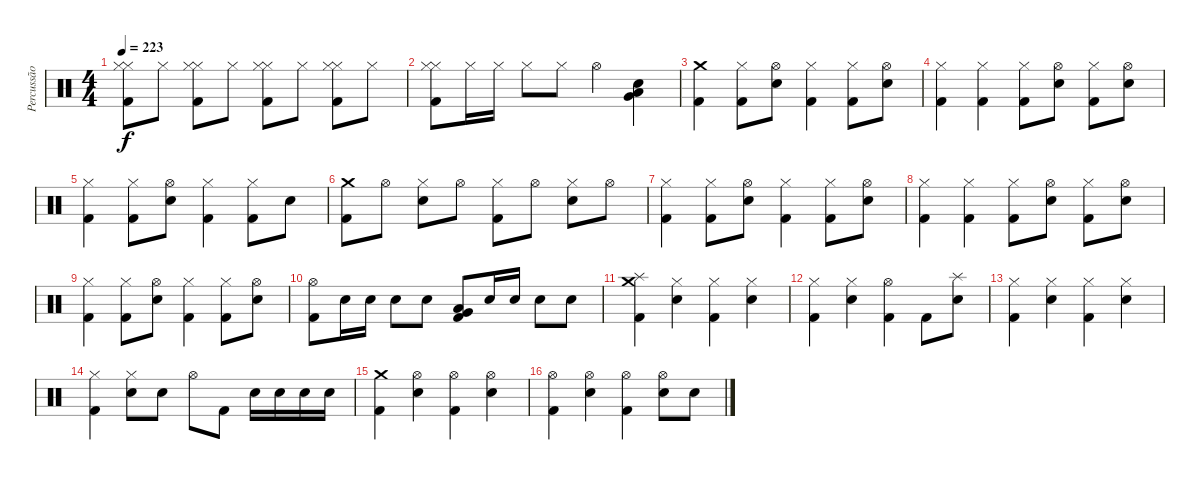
\track ("Percussão" "Percussão") {instrument percussion}
\staff {score}
\articulation defaults
\ts (4 4)
\tempo 223
\clef neutral
\ks c
("Hi-Hat (closed)" "Kick (hit) 2" "Hi-Hat (closed)").8{dy f} "Hi-Hat (closed)".8 ("Hi-Hat (closed)" "Kick (hit) 2" "Hi-Hat (closed)").8 "Hi-Hat (closed)".8 ("Hi-Hat (closed)" "Kick (hit) 2" "Hi-Hat (closed)").8 "Hi-Hat (closed)".8 ("Hi-Hat (closed)" "Kick (hit) 2" "Hi-Hat (closed)").8 "Hi-Hat (closed)".8 |
("Hi-Hat (closed)" "Kick (hit) 2" "Hi-Hat (closed)").8 "Hi-Hat (closed)".16 "Hi-Hat (closed)".16 "Hi-Hat (closed)".8 "Hi-Hat (closed)".8 "Hi-Hat (open)".4 ("Low Tom (hit)" "Very Low Tom (hit)" "Snare (hit) 2").4 |
("Crash medium (hit)" "Kick (hit) 2").4 ("Hi-Hat (closed)" "Kick (hit) 2").8 ("Hi-Hat (open)" "Snare (hit) 2").8 ("Hi-Hat (closed)" "Kick (hit) 2").4 ("Hi-Hat (closed)" "Kick (hit) 2").8 ("Hi-Hat (open)" "Snare (hit) 2").8 |
("Hi-Hat (closed)" "Kick (hit) 2").4 ("Hi-Hat (closed)" "Kick (hit) 2").4 ("Hi-Hat (closed)" "Kick (hit) 2").8 ("Hi-Hat (open)" "Snare (hit) 2").8 ("Hi-Hat (closed)" "Kick (hit) 2").8 ("Hi-Hat (open)" "Snare (hit) 2").8 |
("Hi-Hat (closed)" "Kick (hit) 2").4 ("Hi-Hat (closed)" "Kick (hit) 2").8 ("Hi-Hat (open)" "Snare (hit) 2").8 ("Hi-Hat (closed)" "Kick (hit) 2").4 ("Hi-Hat (closed)" "Kick (hit) 2").8 "Snare (hit) 2".8 |
("Crash medium (hit)" "Kick (hit) 2").8 "Hi-Hat (open)".8 ("Hi-Hat (closed)" "Snare (hit) 2").8 "Hi-Hat (open)".8 ("Hi-Hat (closed)" "Kick (hit) 2").8 "Hi-Hat (open)".8 ("Hi-Hat (closed)" "Snare (hit) 2").8 "Hi-Hat (open)".8 |
("Hi-Hat (closed)" "Kick (hit) 2").4 ("Hi-Hat (closed)" "Kick (hit) 2").8 ("Hi-Hat (open)" "Snare (hit) 2").8 ("Hi-Hat (closed)" "Kick (hit) 2").4 ("Hi-Hat (closed)" "Kick (hit) 2").8 ("Hi-Hat (open)" "Snare (hit) 2").8 |
("Hi-Hat (closed)" "Kick (hit) 2").4 ("Hi-Hat (closed)" "Kick (hit) 2").4 ("Hi-Hat (closed)" "Kick (hit) 2").8 ("Hi-Hat (open)" "Snare (hit) 2").8 ("Hi-Hat (closed)" "Kick (hit) 2").8 ("Hi-Hat (open)" "Snare (hit) 2").8 |
("Hi-Hat (closed)" "Kick (hit) 2").4 ("Hi-Hat (closed)" "Kick (hit) 2").8 ("Hi-Hat (open)" "Snare (hit) 2").8 ("Hi-Hat (closed)" "Kick (hit) 2").4 ("Hi-Hat (closed)" "Kick (hit) 2").8 ("Hi-Hat (open)" "Snare (hit) 2").8 |
("Hi-Hat (open)" "Kick (hit) 2").8 "Snare (hit) 2".16 "Snare (hit) 2".16 "Snare (hit) 2".8 "Snare (hit) 2".8 ("Low Tom (hit)" "Kick (hit) 2" "Very Low Tom (hit)").8 "Snare (hit) 2".16 "Snare (hit) 2".16 "Snare (hit) 2".8 "Snare (hit) 2".8 |
("Crash medium (hit)" "Kick (hit) 2" "Splash (hit)").4 ("Hi-Hat (closed)" "Snare (hit) 2").4 ("Hi-Hat (closed)" "Kick (hit) 2").4 ("Hi-Hat (closed)" "Snare (hit) 2").4 |
("Hi-Hat (closed)" "Kick (hit) 2").4 ("Hi-Hat (closed)" "Snare (hit) 2").4 ("Hi-Hat (open)" "Kick (hit) 2").4 "Kick (hit) 2".8 ("Splash (hit)" "Snare (hit) 2").8 |
("Hi-Hat (closed)" "Kick (hit) 2").4 ("Hi-Hat (closed)" "Snare (hit) 2").4 ("Hi-Hat (closed)" "Kick (hit) 2").4 ("Hi-Hat (closed)" "Snare (hit) 2").4 |
("Hi-Hat (closed)" "Kick (hit) 2").4 ("Hi-Hat (closed)" "Snare (hit) 2").8 "Snare (hit) 2".8 "Hi-Hat (open)".8 "Kick (hit) 2".8 "Snare (hit) 2".16 "Snare (hit) 2".16 "Snare (hit) 2".16 "Snare (hit) 2".16 |
("Crash medium (hit)" "Kick (hit) 2").4 ("Hi-Hat (open)" "Snare (hit) 2").4 ("Hi-Hat (open)" "Kick (hit) 2").4 ("Hi-Hat (open)" "Snare (hit) 2").4 |
("Hi-Hat (open)" "Kick (hit) 2").4 ("Hi-Hat (open)" "Snare (hit) 2").4 ("Hi-Hat (open)" "Kick (hit) 2").4 ("Hi-Hat (open)" "Snare (hit) 2").8 "Snare (hit) 2".8
